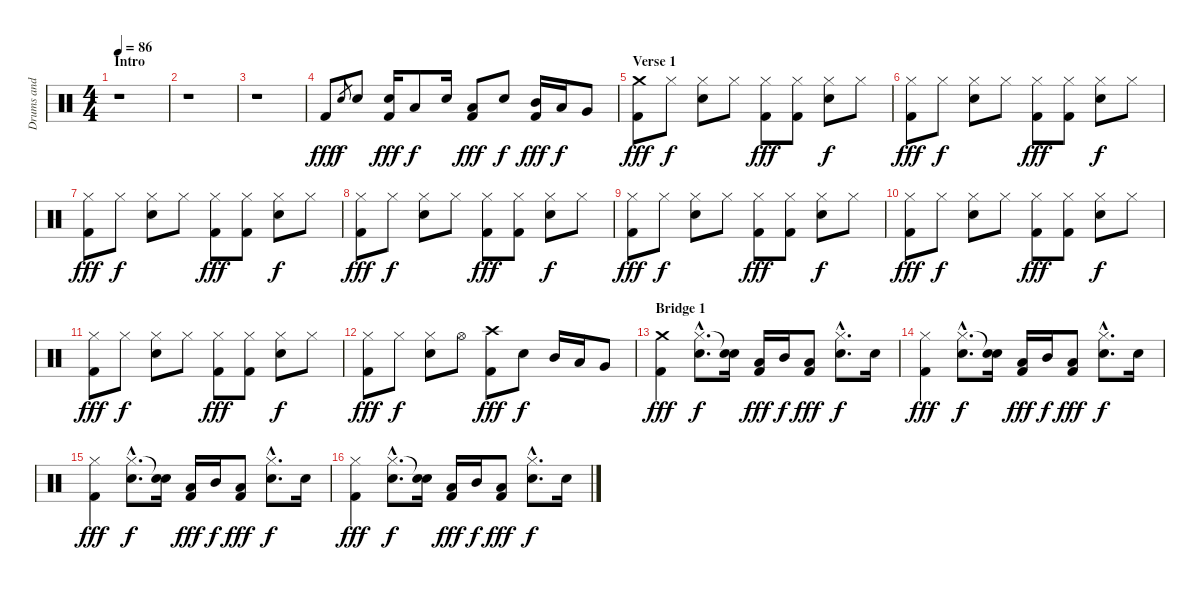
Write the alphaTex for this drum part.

\track ("Drums and Percussion" "Drums and ") {instrument percussion}
\staff {score}
\articulation defaults
\ts (4 4)
\section ("" "Intro")
\tempo 86
\clef neutral
\ks c
r.1{dy fff} |
r.1 |
r.1 |
"Kick (hit) 2".8 "Snare (hit) 2".8{gr dy f} "Snare (hit) 2".8 ("Snare (hit) 2" "Kick (hit) 2").16{dy fff} "Low Tom (hit)".8{dy f} "Snare (hit) 2".16 ("Low Tom (hit)" "Kick (hit) 2").8{dy fff} "Snare (hit) 2".8{dy f} ("Mid Tom (hit)" "Kick (hit) 2").16{dy fff} "Low Tom (hit)".16{dy f} "Very Low Tom (hit)".8 |
\section ("" "Verse 1")
("Crash medium (hit)" "Kick (hit) 2").8{dy fff} "Hi-Hat (closed)".8{dy f} ("Hi-Hat (closed)" "Snare (hit) 2").8 "Hi-Hat (closed)".8 ("Hi-Hat (closed)" "Kick (hit) 2").8{dy fff} ("Hi-Hat (closed)" "Kick (hit) 2").8 ("Hi-Hat (closed)" "Snare (hit) 2").8{dy f} "Hi-Hat (closed)".8 |
("Hi-Hat (closed)" "Kick (hit) 2").8{dy fff} "Hi-Hat (closed)".8{dy f} ("Hi-Hat (closed)" "Snare (hit) 2").8 "Hi-Hat (closed)".8 ("Hi-Hat (closed)" "Kick (hit) 2").8{dy fff} ("Hi-Hat (closed)" "Kick (hit) 2").8 ("Hi-Hat (closed)" "Snare (hit) 2").8{dy f} "Hi-Hat (closed)".8 |
("Hi-Hat (closed)" "Kick (hit) 2").8{dy fff} "Hi-Hat (closed)".8{dy f} ("Hi-Hat (closed)" "Snare (hit) 2").8 "Hi-Hat (closed)".8 ("Hi-Hat (closed)" "Kick (hit) 2").8{dy fff} ("Hi-Hat (closed)" "Kick (hit) 2").8 ("Hi-Hat (closed)" "Snare (hit) 2").8{dy f} "Hi-Hat (closed)".8 |
("Hi-Hat (closed)" "Kick (hit) 2").8{dy fff} "Hi-Hat (closed)".8{dy f} ("Hi-Hat (closed)" "Snare (hit) 2").8 "Hi-Hat (closed)".8 ("Hi-Hat (closed)" "Kick (hit) 2").8{dy fff} ("Hi-Hat (closed)" "Kick (hit) 2").8 ("Hi-Hat (closed)" "Snare (hit) 2").8{dy f} "Hi-Hat (closed)".8 |
("Hi-Hat (closed)" "Kick (hit) 2").8{dy fff} "Hi-Hat (closed)".8{dy f} ("Hi-Hat (closed)" "Snare (hit) 2").8 "Hi-Hat (closed)".8 ("Hi-Hat (closed)" "Kick (hit) 2").8{dy fff} ("Hi-Hat (closed)" "Kick (hit) 2").8 ("Hi-Hat (closed)" "Snare (hit) 2").8{dy f} "Hi-Hat (closed)".8 |
("Hi-Hat (closed)" "Kick (hit) 2").8{dy fff} "Hi-Hat (closed)".8{dy f} ("Hi-Hat (closed)" "Snare (hit) 2").8 "Hi-Hat (closed)".8 ("Hi-Hat (closed)" "Kick (hit) 2").8{dy fff} ("Hi-Hat (closed)" "Kick (hit) 2").8 ("Hi-Hat (closed)" "Snare (hit) 2").8{dy f} "Hi-Hat (closed)".8 |
("Hi-Hat (closed)" "Kick (hit) 2").8{dy fff} "Hi-Hat (closed)".8{dy f} ("Hi-Hat (closed)" "Snare (hit) 2").8 "Hi-Hat (closed)".8 ("Hi-Hat (closed)" "Kick (hit) 2").8{dy fff} ("Hi-Hat (closed)" "Kick (hit) 2").8 ("Hi-Hat (closed)" "Snare (hit) 2").8{dy f} "Hi-Hat (closed)".8 |
("Hi-Hat (closed)" "Kick (hit) 2").8{dy fff} "Hi-Hat (closed)".8{dy f} ("Hi-Hat (closed)" "Snare (hit) 2").8 "Hi-Hat (open)".8 ("Crash high (hit)" "Kick (hit) 2").8{dy fff} "Snare (hit) 2".8{dy f} "Mid Tom (hit)".16 "Low Tom (hit)".16 "Very Low Tom (hit)".8 |
\section ("" "Bridge 1")
("Crash medium (hit)" "Kick (hit) 2").4{dy fff} ("Hi-Hat (closed)"{hac} "Snare (hit) 2"{hac}).8{d dy f} ("Snare (hit)"{t} "Snare (hit) 2").16 ("Low Tom (hit)" "Kick (hit) 2").16{dy fff} "Mid Tom (hit)".16{dy f} ("Low Tom (hit)" "Kick (hit) 2").8{dy fff} ("Hi-Hat (closed)"{hac} "Snare (hit) 2"{hac}).8{d dy f} "Snare (hit) 2".16 |
("Hi-Hat (closed)" "Kick (hit) 2").4{dy fff} ("Hi-Hat (closed)"{hac} "Snare (hit) 2"{hac}).8{d dy f} ("Snare (hit)"{t} "Snare (hit) 2").16 ("Low Tom (hit)" "Kick (hit) 2").16{dy fff} "Mid Tom (hit)".16{dy f} ("Low Tom (hit)" "Kick (hit) 2").8{dy fff} ("Hi-Hat (closed)"{hac} "Snare (hit) 2"{hac}).8{d dy f} "Snare (hit) 2".16 |
("Hi-Hat (closed)" "Kick (hit) 2").4{dy fff} ("Hi-Hat (closed)"{hac} "Snare (hit) 2"{hac}).8{d dy f} ("Snare (hit)"{t} "Snare (hit) 2").16 ("Low Tom (hit)" "Kick (hit) 2").16{dy fff} "Mid Tom (hit)".16{dy f} ("Low Tom (hit)" "Kick (hit) 2").8{dy fff} ("Hi-Hat (closed)"{hac} "Snare (hit) 2"{hac}).8{d dy f} "Snare (hit) 2".16 |
("Hi-Hat (closed)" "Kick (hit) 2").4{dy fff} ("Hi-Hat (closed)"{hac} "Snare (hit) 2"{hac}).8{d dy f} ("Snare (hit)"{t} "Snare (hit) 2").16 ("Low Tom (hit)" "Kick (hit) 2").16{dy fff} "Mid Tom (hit)".16{dy f} ("Low Tom (hit)" "Kick (hit) 2").8{dy fff} ("Hi-Hat (closed)"{hac} "Snare (hit) 2"{hac}).8{d dy f} "Snare (hit) 2".16
